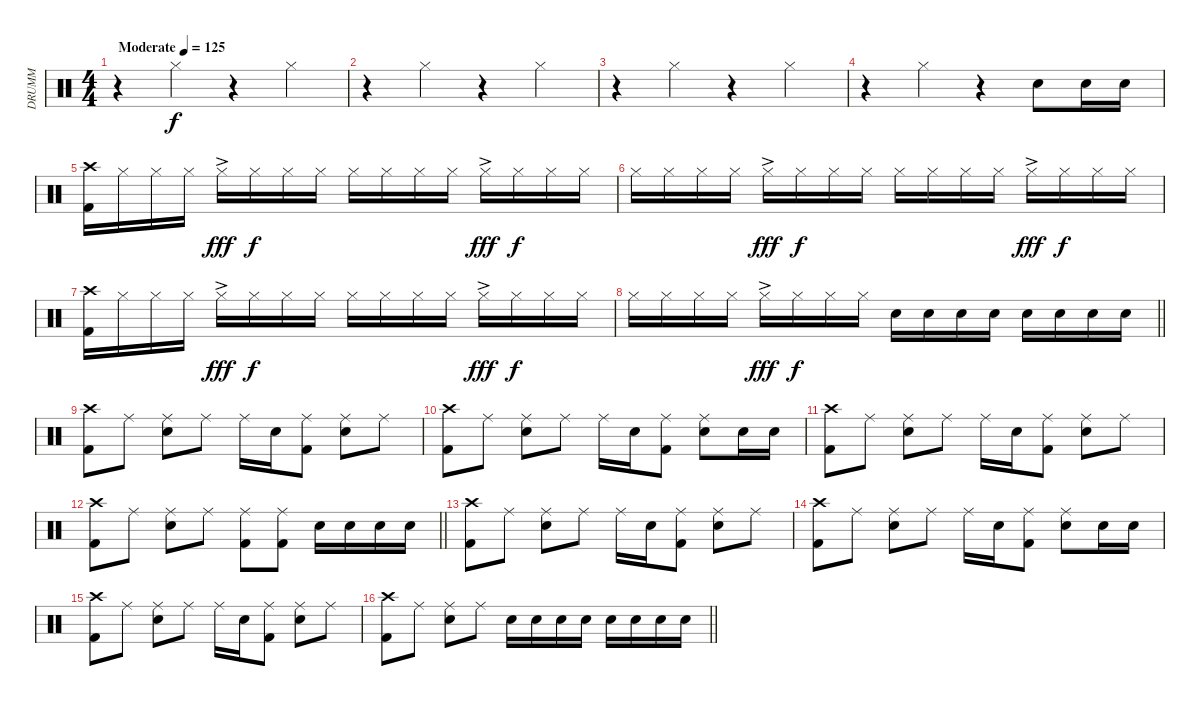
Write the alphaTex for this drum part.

\track ("DRUMM" "DRUMM") {instrument percussion}
\staff {score}
\articulation defaults
\ts (4 4)
\tempo (125 "Moderate")
\clef neutral
\ks c
r.4{dy f} "Hi-Hat (closed)".4 r.4 "Hi-Hat (closed)".4 |
r.4 "Hi-Hat (closed)".4 r.4 "Hi-Hat (closed)".4 |
r.4 "Hi-Hat (closed)".4 r.4 "Hi-Hat (closed)".4 |
r.4 "Hi-Hat (closed)".4 r.4 "Snare (hit) 2".8 "Snare (hit) 2".16 "Snare (hit) 2".16 |
("Kick (hit) 2" "Crash high (hit)").16 "Hi-Hat (closed)".16 "Hi-Hat (closed)".16 "Hi-Hat (closed)".16 "Hi-Hat (closed)"{ac}.16{dy fff} "Hi-Hat (closed)".16{dy f} "Hi-Hat (closed)".16 "Hi-Hat (closed)".16 "Hi-Hat (closed)".16 "Hi-Hat (closed)".16 "Hi-Hat (closed)".16 "Hi-Hat (closed)".16 "Hi-Hat (closed)"{ac}.16{dy fff} "Hi-Hat (closed)".16{dy f} "Hi-Hat (closed)".16 "Hi-Hat (closed)".16 |
"Hi-Hat (closed)".16 "Hi-Hat (closed)".16 "Hi-Hat (closed)".16 "Hi-Hat (closed)".16 "Hi-Hat (closed)"{ac}.16{dy fff} "Hi-Hat (closed)".16{dy f} "Hi-Hat (closed)".16 "Hi-Hat (closed)".16 "Hi-Hat (closed)".16 "Hi-Hat (closed)".16 "Hi-Hat (closed)".16 "Hi-Hat (closed)".16 "Hi-Hat (closed)"{ac}.16{dy fff} "Hi-Hat (closed)".16{dy f} "Hi-Hat (closed)".16 "Hi-Hat (closed)".16 |
("Kick (hit) 2" "Crash high (hit)").16 "Hi-Hat (closed)".16 "Hi-Hat (closed)".16 "Hi-Hat (closed)".16 "Hi-Hat (closed)"{ac}.16{dy fff} "Hi-Hat (closed)".16{dy f} "Hi-Hat (closed)".16 "Hi-Hat (closed)".16 "Hi-Hat (closed)".16 "Hi-Hat (closed)".16 "Hi-Hat (closed)".16 "Hi-Hat (closed)".16 "Hi-Hat (closed)"{ac}.16{dy fff} "Hi-Hat (closed)".16{dy f} "Hi-Hat (closed)".16 "Hi-Hat (closed)".16 |
\barLineRight lightlight "Hi-Hat (closed)".16 "Hi-Hat (closed)".16 "Hi-Hat (closed)".16 "Hi-Hat (closed)".16 "Hi-Hat (closed)"{ac}.16{dy fff} "Hi-Hat (closed)".16{dy f} "Hi-Hat (closed)".16 "Hi-Hat (closed)".16 "Snare (hit) 2".16 "Snare (hit) 2".16 "Snare (hit) 2".16 "Snare (hit) 2".16 "Snare (hit) 2".16 "Snare (hit) 2".16 "Snare (hit) 2".16 "Snare (hit) 2".16
|
("Kick (hit) 2" "Crash high (hit)").8 "Ride (middle)".8 ("Ride (middle)" "Snare (hit) 2").8 "Ride (middle)".8 "Ride (middle)".16 "Snare (hit) 2".16 ("Kick (hit) 2" "Ride (middle)").8 ("Ride (middle)" "Snare (hit) 2").8 "Ride (middle)".8 |
("Kick (hit) 2" "Crash high (hit)").8 "Ride (middle)".8 ("Ride (middle)" "Snare (hit) 2").8 "Ride (middle)".8 "Ride (middle)".16 "Snare (hit) 2".16 ("Kick (hit) 2" "Ride (middle)").8 ("Ride (middle)" "Snare (hit) 2").8 "Snare (hit) 2".16 "Snare (hit) 2".16 |
("Kick (hit) 2" "Crash high (hit)").8 "Ride (middle)".8 ("Ride (middle)" "Snare (hit) 2").8 "Ride (middle)".8 "Ride (middle)".16 "Snare (hit) 2".16 ("Kick (hit) 2" "Ride (middle)").8 ("Ride (middle)" "Snare (hit) 2").8 "Ride (middle)".8 |
\barLineRight lightlight
("Kick (hit) 2" "Crash high (hit)").8 "Ride (middle)".8 ("Ride (middle)" "Snare (hit) 2").8 "Ride (middle)".8 ("Kick (hit) 2" "Ride (middle)").8 ("Ride (middle)" "Kick (hit) 2").8 "Snare (hit) 2".16 "Snare (hit) 2".16 "Snare (hit) 2".16 "Snare (hit) 2".16 |
("Kick (hit) 2" "Crash high (hit)").8 "Ride (middle)".8 ("Ride (middle)" "Snare (hit) 2").8 "Ride (middle)".8 "Ride (middle)".16 "Snare (hit) 2".16 ("Kick (hit) 2" "Ride (middle)").8 ("Ride (middle)" "Snare (hit) 2").8 "Ride (middle)".8 |
("Kick (hit) 2" "Crash high (hit)").8 "Ride (middle)".8 ("Ride (middle)" "Snare (hit) 2").8 "Ride (middle)".8 "Ride (middle)".16 "Snare (hit) 2".16 ("Kick (hit) 2" "Ride (middle)").8 ("Ride (middle)" "Snare (hit) 2").8 "Snare (hit) 2".16 "Snare (hit) 2".16 |
("Kick (hit) 2" "Crash high (hit)").8 "Ride (middle)".8 ("Ride (middle)" "Snare (hit) 2").8 "Ride (middle)".8 "Ride (middle)".16 "Snare (hit) 2".16 ("Kick (hit) 2" "Ride (middle)").8 ("Ride (middle)" "Snare (hit) 2").8 "Ride (middle)".8 |
\barLineRight lightlight
("Kick (hit) 2" "Crash high (hit)").8 "Ride (middle)".8 ("Ride (middle)" "Snare (hit) 2").8 "Ride (middle)".8 "Snare (hit) 2".16 "Snare (hit) 2".16 "Snare (hit) 2".16 "Snare (hit) 2".16 "Snare (hit) 2".16 "Snare (hit) 2".16 "Snare (hit) 2".16 "Snare (hit) 2".16
